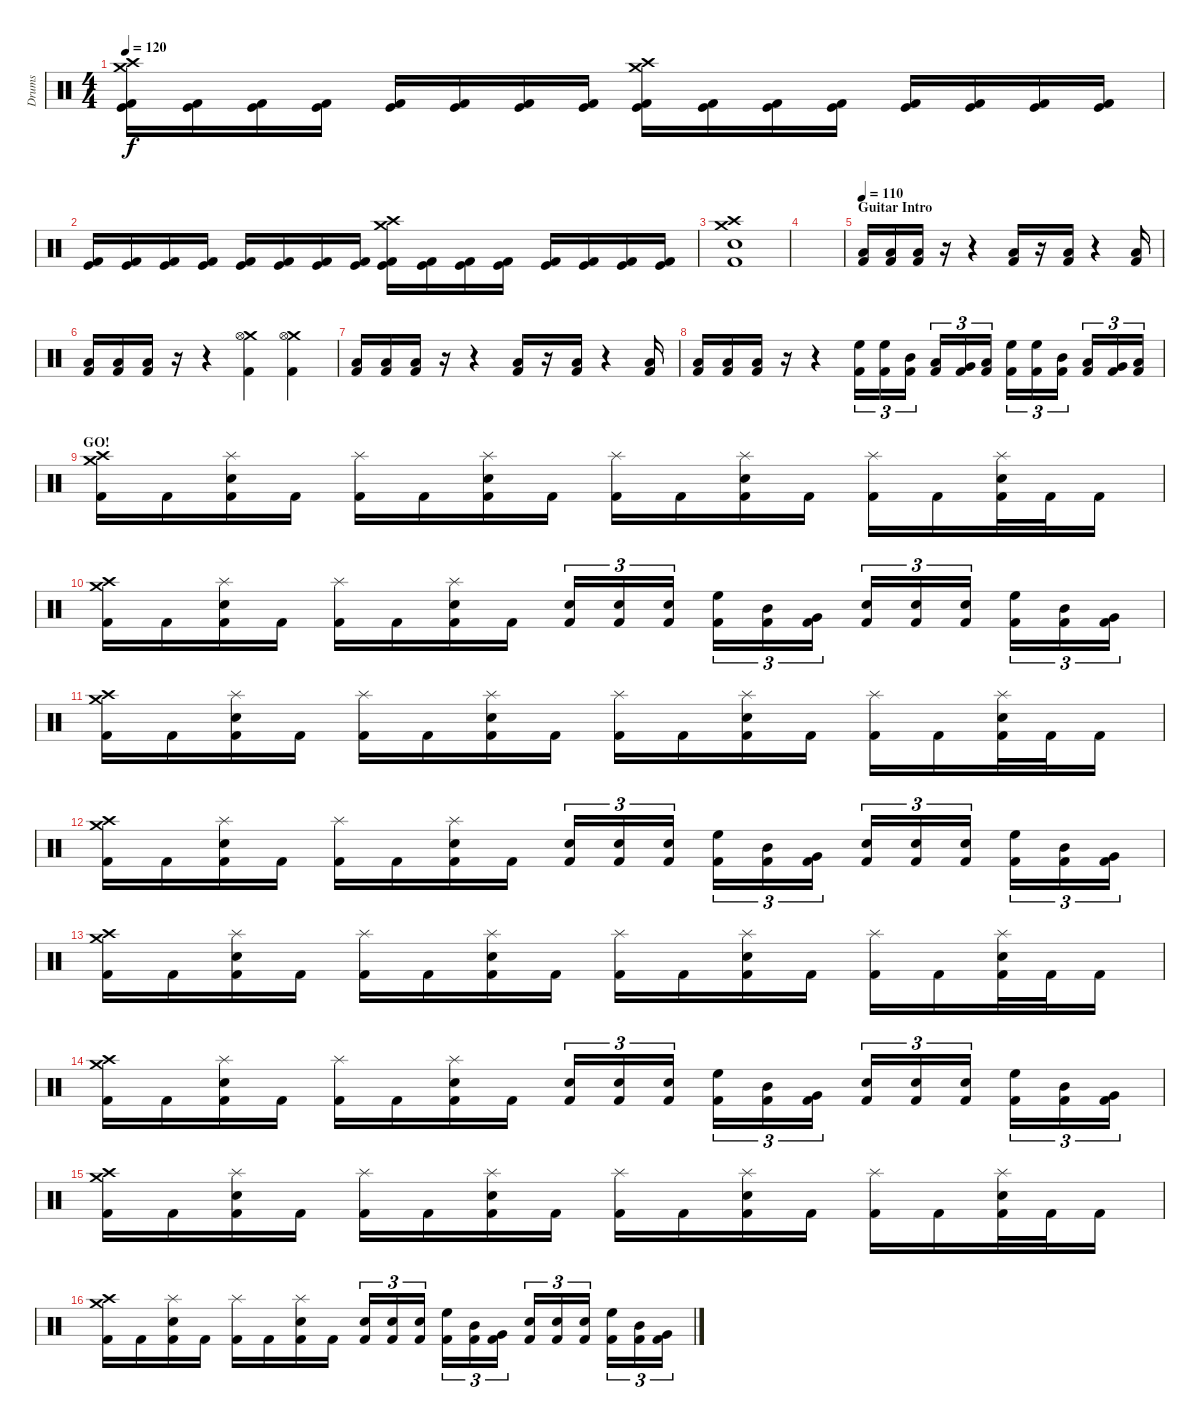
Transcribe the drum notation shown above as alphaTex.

\track ("Drums" "Drums") {instrument percussion}
\staff {score}
\articulation defaults
\ts (4 4)
\tempo 120
\clef neutral
\ks c
("Crash medium (hit)" "Crash high (hit)" "Kick (hit)" "Kick (hit) 2").16{dy f} ("Kick (hit)" "Kick (hit) 2").16 ("Kick (hit)" "Kick (hit) 2").16 ("Kick (hit)" "Kick (hit) 2").16 ("Kick (hit)" "Kick (hit) 2").16 ("Kick (hit)" "Kick (hit) 2").16 ("Kick (hit)" "Kick (hit) 2").16 ("Kick (hit)" "Kick (hit) 2").16 ("Crash medium (hit)" "Crash high (hit)" "Kick (hit)" "Kick (hit) 2").16 ("Kick (hit)" "Kick (hit) 2").16 ("Kick (hit)" "Kick (hit) 2").16 ("Kick (hit)" "Kick (hit) 2").16 ("Kick (hit)" "Kick (hit) 2").16 ("Kick (hit)" "Kick (hit) 2").16 ("Kick (hit)" "Kick (hit) 2").16 ("Kick (hit)" "Kick (hit) 2").16 |
("Kick (hit)" "Kick (hit) 2").16 ("Kick (hit)" "Kick (hit) 2").16 ("Kick (hit)" "Kick (hit) 2").16 ("Kick (hit)" "Kick (hit) 2").16 ("Kick (hit)" "Kick (hit) 2").16 ("Kick (hit)" "Kick (hit) 2").16 ("Kick (hit)" "Kick (hit) 2").16 ("Kick (hit)" "Kick (hit) 2").16 ("Crash medium (hit)" "Crash high (hit)" "Kick (hit)" "Kick (hit) 2").16 ("Kick (hit)" "Kick (hit) 2").16 ("Kick (hit)" "Kick (hit) 2").16 ("Kick (hit)" "Kick (hit) 2").16 ("Kick (hit)" "Kick (hit) 2").16 ("Kick (hit)" "Kick (hit) 2").16 ("Kick (hit)" "Kick (hit) 2").16 ("Kick (hit)" "Kick (hit) 2").16 |
("Crash medium (hit)" "Crash high (hit)" "Electric Snare (hit)" "Kick (hit) 2").1 |
|
\section ("" "Guitar Intro")
\tempo 110
("Low Tom (hit)" "Kick (hit) 2").16 ("Low Tom (hit)" "Kick (hit) 2").16 ("Low Tom (hit)" "Kick (hit) 2").16 r.16 r.4 ("Low Tom (hit)" "Kick (hit) 2").16 r.16 ("Low Tom (hit)" "Kick (hit) 2").16 r.4 ("Low Tom (hit)" "Kick (hit) 2").16 |
("Low Tom (hit)" "Kick (hit) 2").16 ("Low Tom (hit)" "Kick (hit) 2").16 ("Low Tom (hit)" "Kick (hit) 2").16 r.16 r.4 ("Crash medium (hit)" "Hi-Hat (open)" "Kick (hit) 2").4 ("Crash medium (hit)" "Hi-Hat (open)" "Kick (hit) 2").4 |
("Low Tom (hit)" "Kick (hit) 2").16 ("Low Tom (hit)" "Kick (hit) 2").16 ("Low Tom (hit)" "Kick (hit) 2").16 r.16 r.4 ("Low Tom (hit)" "Kick (hit) 2").16 r.16 ("Low Tom (hit)" "Kick (hit) 2").16 r.4 ("Low Tom (hit)" "Kick (hit) 2").16 |
("Low Tom (hit)" "Kick (hit) 2").16 ("Low Tom (hit)" "Kick (hit) 2").16 ("Low Tom (hit)" "Kick (hit) 2").16 r.16 r.4 ("High Floor Tom (hit)" "Kick (hit) 2").16{tu (3 2)} ("High Floor Tom (hit)" "Kick (hit) 2").16{tu (3 2)} ("Mid Tom (hit)" "Kick (hit) 2").16{tu (3 2)} ("Low Tom (hit)" "Kick (hit) 2").16{tu (3 2)} ("Very Low Tom (hit)" "Kick (hit) 2").16{tu (3 2)} ("Low Floor Tom (hit)" "Kick (hit) 2").16{tu (3 2)} ("High Floor Tom (hit)" "Kick (hit) 2").16{tu (3 2)} ("High Floor Tom (hit)" "Kick (hit) 2").16{tu (3 2)} ("Mid Tom (hit)" "Kick (hit) 2").16{tu (3 2)} ("Low Tom (hit)" "Kick (hit) 2").16{tu (3 2)} ("Very Low Tom (hit)" "Kick (hit) 2").16{tu (3 2)} ("Low Floor Tom (hit)" "Kick (hit) 2").16{tu (3 2)} |
\section ("" "GO!")
("Crash medium (hit)" "Crash high (hit)" "Kick (hit) 2").16 "Kick (hit) 2".16 ("Splash (hit)" "Electric Snare (hit)" "Kick (hit) 2").16 "Kick (hit) 2".16 ("Splash (hit)" "Kick (hit) 2").16 "Kick (hit) 2".16 ("Splash (hit)" "Electric Snare (hit)" "Kick (hit) 2").16 "Kick (hit) 2".16 ("Splash (hit)" "Kick (hit) 2").16 "Kick (hit) 2".16 ("Splash (hit)" "Electric Snare (hit)" "Kick (hit) 2").16 "Kick (hit) 2".16 ("Splash (hit)" "Kick (hit) 2").16 "Kick (hit) 2".16 ("Splash (hit)" "Electric Snare (hit)" "Kick (hit) 2").32 "Kick (hit) 2".32 "Kick (hit) 2".16 |
("Crash medium (hit)" "Crash high (hit)" "Kick (hit) 2").16 "Kick (hit) 2".16 ("Splash (hit)" "Electric Snare (hit)" "Kick (hit) 2").16 "Kick (hit) 2".16 ("Splash (hit)" "Kick (hit) 2").16 "Kick (hit) 2".16 ("Splash (hit)" "Electric Snare (hit)" "Kick (hit) 2").16 "Kick (hit) 2".16 ("Electric Snare (hit)" "Kick (hit) 2").16{tu (3 2)} ("Electric Snare (hit)" "Kick (hit) 2").16{tu (3 2)} ("Electric Snare (hit)" "Kick (hit) 2").16{tu (3 2)} ("High Floor Tom (hit)" "Kick (hit) 2").16{tu (3 2)} ("Mid Tom (hit)" "Kick (hit) 2").16{tu (3 2)} ("Very Low Tom (hit)" "Kick (hit) 2").16{tu (3 2)} ("Electric Snare (hit)" "Kick (hit) 2").16{tu (3 2)} ("Electric Snare (hit)" "Kick (hit) 2").16{tu (3 2)} ("Electric Snare (hit)" "Kick (hit) 2").16{tu (3 2)} ("High Floor Tom (hit)" "Kick (hit) 2").16{tu (3 2)} ("Mid Tom (hit)" "Kick (hit) 2").16{tu (3 2)} ("Very Low Tom (hit)" "Kick (hit) 2").16{tu (3 2)} |
("Crash medium (hit)" "Crash high (hit)" "Kick (hit) 2").16 "Kick (hit) 2".16 ("Splash (hit)" "Electric Snare (hit)" "Kick (hit) 2").16 "Kick (hit) 2".16 ("Splash (hit)" "Kick (hit) 2").16 "Kick (hit) 2".16 ("Splash (hit)" "Electric Snare (hit)" "Kick (hit) 2").16 "Kick (hit) 2".16 ("Splash (hit)" "Kick (hit) 2").16 "Kick (hit) 2".16 ("Splash (hit)" "Electric Snare (hit)" "Kick (hit) 2").16 "Kick (hit) 2".16 ("Splash (hit)" "Kick (hit) 2").16 "Kick (hit) 2".16 ("Splash (hit)" "Electric Snare (hit)" "Kick (hit) 2").32 "Kick (hit) 2".32 "Kick (hit) 2".16 |
("Crash medium (hit)" "Crash high (hit)" "Kick (hit) 2").16 "Kick (hit) 2".16 ("Splash (hit)" "Electric Snare (hit)" "Kick (hit) 2").16 "Kick (hit) 2".16 ("Splash (hit)" "Kick (hit) 2").16 "Kick (hit) 2".16 ("Splash (hit)" "Electric Snare (hit)" "Kick (hit) 2").16 "Kick (hit) 2".16 ("Electric Snare (hit)" "Kick (hit) 2").16{tu (3 2)} ("Electric Snare (hit)" "Kick (hit) 2").16{tu (3 2)} ("Electric Snare (hit)" "Kick (hit) 2").16{tu (3 2)} ("High Floor Tom (hit)" "Kick (hit) 2").16{tu (3 2)} ("Mid Tom (hit)" "Kick (hit) 2").16{tu (3 2)} ("Very Low Tom (hit)" "Kick (hit) 2").16{tu (3 2)} ("Electric Snare (hit)" "Kick (hit) 2").16{tu (3 2)} ("Electric Snare (hit)" "Kick (hit) 2").16{tu (3 2)} ("Electric Snare (hit)" "Kick (hit) 2").16{tu (3 2)} ("High Floor Tom (hit)" "Kick (hit) 2").16{tu (3 2)} ("Mid Tom (hit)" "Kick (hit) 2").16{tu (3 2)} ("Very Low Tom (hit)" "Kick (hit) 2").16{tu (3 2)} |
("Crash medium (hit)" "Crash high (hit)" "Kick (hit) 2").16 "Kick (hit) 2".16 ("Splash (hit)" "Electric Snare (hit)" "Kick (hit) 2").16 "Kick (hit) 2".16 ("Splash (hit)" "Kick (hit) 2").16 "Kick (hit) 2".16 ("Splash (hit)" "Electric Snare (hit)" "Kick (hit) 2").16 "Kick (hit) 2".16 ("Splash (hit)" "Kick (hit) 2").16 "Kick (hit) 2".16 ("Splash (hit)" "Electric Snare (hit)" "Kick (hit) 2").16 "Kick (hit) 2".16 ("Splash (hit)" "Kick (hit) 2").16 "Kick (hit) 2".16 ("Splash (hit)" "Electric Snare (hit)" "Kick (hit) 2").32 "Kick (hit) 2".32 "Kick (hit) 2".16 |
("Crash medium (hit)" "Crash high (hit)" "Kick (hit) 2").16 "Kick (hit) 2".16 ("Splash (hit)" "Electric Snare (hit)" "Kick (hit) 2").16 "Kick (hit) 2".16 ("Splash (hit)" "Kick (hit) 2").16 "Kick (hit) 2".16 ("Splash (hit)" "Electric Snare (hit)" "Kick (hit) 2").16 "Kick (hit) 2".16 ("Electric Snare (hit)" "Kick (hit) 2").16{tu (3 2)} ("Electric Snare (hit)" "Kick (hit) 2").16{tu (3 2)} ("Electric Snare (hit)" "Kick (hit) 2").16{tu (3 2)} ("High Floor Tom (hit)" "Kick (hit) 2").16{tu (3 2)} ("Mid Tom (hit)" "Kick (hit) 2").16{tu (3 2)} ("Very Low Tom (hit)" "Kick (hit) 2").16{tu (3 2)} ("Electric Snare (hit)" "Kick (hit) 2").16{tu (3 2)} ("Electric Snare (hit)" "Kick (hit) 2").16{tu (3 2)} ("Electric Snare (hit)" "Kick (hit) 2").16{tu (3 2)} ("High Floor Tom (hit)" "Kick (hit) 2").16{tu (3 2)} ("Mid Tom (hit)" "Kick (hit) 2").16{tu (3 2)} ("Very Low Tom (hit)" "Kick (hit) 2").16{tu (3 2)} |
("Crash medium (hit)" "Crash high (hit)" "Kick (hit) 2").16 "Kick (hit) 2".16 ("Splash (hit)" "Electric Snare (hit)" "Kick (hit) 2").16 "Kick (hit) 2".16 ("Splash (hit)" "Kick (hit) 2").16 "Kick (hit) 2".16 ("Splash (hit)" "Electric Snare (hit)" "Kick (hit) 2").16 "Kick (hit) 2".16 ("Splash (hit)" "Kick (hit) 2").16 "Kick (hit) 2".16 ("Splash (hit)" "Electric Snare (hit)" "Kick (hit) 2").16 "Kick (hit) 2".16 ("Splash (hit)" "Kick (hit) 2").16 "Kick (hit) 2".16 ("Splash (hit)" "Electric Snare (hit)" "Kick (hit) 2").32 "Kick (hit) 2".32 "Kick (hit) 2".16 |
("Crash medium (hit)" "Crash high (hit)" "Kick (hit) 2").16 "Kick (hit) 2".16 ("Splash (hit)" "Electric Snare (hit)" "Kick (hit) 2").16 "Kick (hit) 2".16 ("Splash (hit)" "Kick (hit) 2").16 "Kick (hit) 2".16 ("Splash (hit)" "Electric Snare (hit)" "Kick (hit) 2").16 "Kick (hit) 2".16 ("Electric Snare (hit)" "Kick (hit) 2").16{tu (3 2)} ("Electric Snare (hit)" "Kick (hit) 2").16{tu (3 2)} ("Electric Snare (hit)" "Kick (hit) 2").16{tu (3 2)} ("High Floor Tom (hit)" "Kick (hit) 2").16{tu (3 2)} ("Mid Tom (hit)" "Kick (hit) 2").16{tu (3 2)} ("Very Low Tom (hit)" "Kick (hit) 2").16{tu (3 2)} ("Electric Snare (hit)" "Kick (hit) 2").16{tu (3 2)} ("Electric Snare (hit)" "Kick (hit) 2").16{tu (3 2)} ("Electric Snare (hit)" "Kick (hit) 2").16{tu (3 2)} ("High Floor Tom (hit)" "Kick (hit) 2").16{tu (3 2)} ("Mid Tom (hit)" "Kick (hit) 2").16{tu (3 2)} ("Very Low Tom (hit)" "Kick (hit) 2").16{tu (3 2)}
